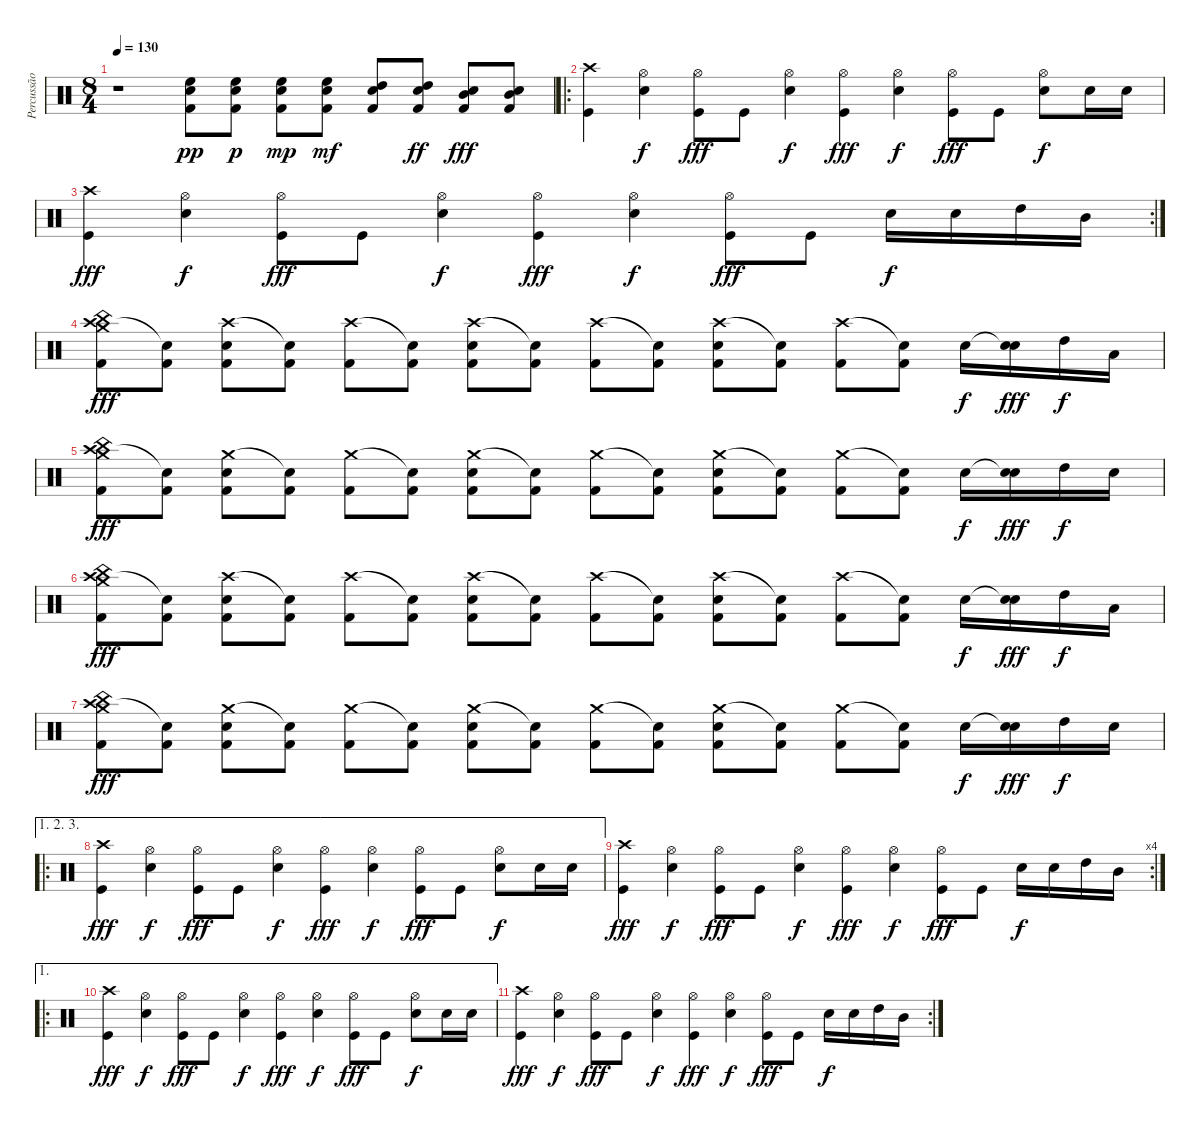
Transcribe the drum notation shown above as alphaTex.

\track ("Percussão" "Percussão") {instrument percussion}
\staff {score}
\articulation defaults
\ts (8 4)
\tempo 130
\clef neutral
\ks c
r.1{dy f} ("High Floor Tom (hit)" "Kick (hit) 2" "Electric Snare (hit)").8{dy pp} ("High Floor Tom (hit)" "Kick (hit) 2" "Electric Snare (hit)").8{dy p} ("High Floor Tom (hit)" "Kick (hit) 2" "Electric Snare (hit)").8{dy mp} ("High Floor Tom (hit)" "Kick (hit) 2" "Electric Snare (hit)").8{dy mf} ("High Tom (hit)" "Kick (hit) 2" "Electric Snare (hit)").8 ("High Tom (hit)" "Kick (hit) 2" "Electric Snare (hit)").8{dy ff} ("Mid Tom (hit)" "Kick (hit) 2" "Electric Snare (hit)").8{dy fff} ("Mid Tom (hit)" "Kick (hit) 2" "Electric Snare (hit)").8 |
\ro
("Crash high (hit)" "Kick (hit)").4 ("Hi-Hat (open)" "Electric Snare (hit)").4{dy f} ("Hi-Hat (open)" "Kick (hit)").8{dy fff} "Kick (hit)".8 ("Hi-Hat (open)" "Electric Snare (hit)").4{dy f} ("Hi-Hat (open)" "Kick (hit)").4{dy fff} ("Hi-Hat (open)" "Electric Snare (hit)").4{dy f} ("Hi-Hat (open)" "Kick (hit)").8{dy fff} "Kick (hit)".8 ("Hi-Hat (open)" "Electric Snare (hit)").8{dy f} "Electric Snare (hit)".16 "Electric Snare (hit)".16 |
\rc 2
("Crash high (hit)" "Kick (hit)").4{dy fff} ("Hi-Hat (open)" "Electric Snare (hit)").4{dy f} ("Hi-Hat (open)" "Kick (hit)").8{dy fff} "Kick (hit)".8 ("Hi-Hat (open)" "Electric Snare (hit)").4{dy f} ("Hi-Hat (open)" "Kick (hit)").4{dy fff} ("Hi-Hat (open)" "Electric Snare (hit)").4{dy f} ("Hi-Hat (open)" "Kick (hit)").8{dy fff} "Kick (hit)".8 "Electric Snare (hit)".16{dy f} "Electric Snare (hit)".16 "High Tom (hit)".16 "Mid Tom (hit)".16 |
("Crash high (hit)" "Crash medium (hit)" "China (hit)" "Kick (hit) 2").8{dy fff} ("Snare (hit)"{t} "Kick (hit) 2").8 ("Crash high (hit)" "Electric Snare (hit)" "Kick (hit) 2").8 ("Snare (hit)"{t} "Kick (hit) 2").8 ("Crash high (hit)" "Kick (hit) 2").8 ("Snare (hit)"{t} "Kick (hit) 2").8 ("Crash high (hit)" "Electric Snare (hit)" "Kick (hit) 2").8 ("Snare (hit)"{t} "Kick (hit) 2").8 ("Crash high (hit)" "Kick (hit) 2").8 ("Snare (hit)"{t} "Kick (hit) 2").8 ("Crash high (hit)" "Electric Snare (hit)" "Kick (hit) 2").8 ("Snare (hit)"{t} "Kick (hit) 2").8 ("Crash high (hit)" "Kick (hit) 2").8 ("Snare (hit)"{t} "Kick (hit) 2").8 "Electric Snare (hit)".16{dy f} ("Snare (hit)"{t} "Electric Snare (hit)").16{dy fff} "High Tom (hit)".16{dy f} "Low Tom (hit)".16 |
("Crash high (hit)" "Crash medium (hit)" "China (hit)" "Kick (hit) 2").8{dy fff} ("Snare (hit)"{t} "Kick (hit) 2").8 ("Crash medium (hit)" "Electric Snare (hit)" "Kick (hit) 2").8 ("Snare (hit)"{t} "Kick (hit) 2").8 ("Crash medium (hit)" "Kick (hit) 2").8 ("Snare (hit)"{t} "Kick (hit) 2").8 ("Crash medium (hit)" "Electric Snare (hit)" "Kick (hit) 2").8 ("Snare (hit)"{t} "Kick (hit) 2").8 ("Crash medium (hit)" "Kick (hit) 2").8 ("Snare (hit)"{t} "Kick (hit) 2").8 ("Crash medium (hit)" "Electric Snare (hit)" "Kick (hit) 2").8 ("Snare (hit)"{t} "Kick (hit) 2").8 ("Crash medium (hit)" "Kick (hit) 2").8 ("Snare (hit)"{t} "Kick (hit) 2").8 "Electric Snare (hit)".16{dy f} ("Snare (hit)"{t} "Electric Snare (hit)").16{dy fff} "High Tom (hit)".16{dy f} "Electric Snare (hit)".16 |
("Crash high (hit)" "Crash medium (hit)" "China (hit)" "Kick (hit) 2").8{dy fff} ("Snare (hit)"{t} "Kick (hit) 2").8 ("Crash high (hit)" "Electric Snare (hit)" "Kick (hit) 2").8 ("Snare (hit)"{t} "Kick (hit) 2").8 ("Crash high (hit)" "Kick (hit) 2").8 ("Snare (hit)"{t} "Kick (hit) 2").8 ("Crash high (hit)" "Electric Snare (hit)" "Kick (hit) 2").8 ("Snare (hit)"{t} "Kick (hit) 2").8 ("Crash high (hit)" "Kick (hit) 2").8 ("Snare (hit)"{t} "Kick (hit) 2").8 ("Crash high (hit)" "Electric Snare (hit)" "Kick (hit) 2").8 ("Snare (hit)"{t} "Kick (hit) 2").8 ("Crash high (hit)" "Kick (hit) 2").8 ("Snare (hit)"{t} "Kick (hit) 2").8 "Electric Snare (hit)".16{dy f} ("Snare (hit)"{t} "Electric Snare (hit)").16{dy fff} "High Tom (hit)".16{dy f} "Low Tom (hit)".16 |
("Crash high (hit)" "Crash medium (hit)" "China (hit)" "Kick (hit) 2").8{dy fff} ("Snare (hit)"{t} "Kick (hit) 2").8 ("Crash medium (hit)" "Electric Snare (hit)" "Kick (hit) 2").8 ("Snare (hit)"{t} "Kick (hit) 2").8 ("Crash medium (hit)" "Kick (hit) 2").8 ("Snare (hit)"{t} "Kick (hit) 2").8 ("Crash medium (hit)" "Electric Snare (hit)" "Kick (hit) 2").8 ("Snare (hit)"{t} "Kick (hit) 2").8 ("Crash medium (hit)" "Kick (hit) 2").8 ("Snare (hit)"{t} "Kick (hit) 2").8 ("Crash medium (hit)" "Electric Snare (hit)" "Kick (hit) 2").8 ("Snare (hit)"{t} "Kick (hit) 2").8 ("Crash medium (hit)" "Kick (hit) 2").8 ("Snare (hit)"{t} "Kick (hit) 2").8 "Electric Snare (hit)".16{dy f} ("Snare (hit)"{t} "Electric Snare (hit)").16{dy fff} "High Tom (hit)".16{dy f} "Electric Snare (hit)".16 |
\ae (1 2 3)
\ro
("Crash high (hit)" "Kick (hit)").4{dy fff} ("Hi-Hat (open)" "Electric Snare (hit)").4{dy f} ("Hi-Hat (open)" "Kick (hit)").8{dy fff} "Kick (hit)".8 ("Hi-Hat (open)" "Electric Snare (hit)").4{dy f} ("Hi-Hat (open)" "Kick (hit)").4{dy fff} ("Hi-Hat (open)" "Electric Snare (hit)").4{dy f} ("Hi-Hat (open)" "Kick (hit)").8{dy fff} "Kick (hit)".8 ("Hi-Hat (open)" "Electric Snare (hit)").8{dy f} "Electric Snare (hit)".16 "Electric Snare (hit)".16 |
\rc 4
("Crash high (hit)" "Kick (hit)").4{dy fff} ("Hi-Hat (open)" "Electric Snare (hit)").4{dy f} ("Hi-Hat (open)" "Kick (hit)").8{dy fff} "Kick (hit)".8 ("Hi-Hat (open)" "Electric Snare (hit)").4{dy f} ("Hi-Hat (open)" "Kick (hit)").4{dy fff} ("Hi-Hat (open)" "Electric Snare (hit)").4{dy f} ("Hi-Hat (open)" "Kick (hit)").8{dy fff} "Kick (hit)".8 "Electric Snare (hit)".16{dy f} "Electric Snare (hit)".16 "High Tom (hit)".16 "Mid Tom (hit)".16 |
\ae 1
\ro
("Crash high (hit)" "Kick (hit)").4{dy fff} ("Hi-Hat (open)" "Electric Snare (hit)").4{dy f} ("Hi-Hat (open)" "Kick (hit)").8{dy fff} "Kick (hit)".8 ("Hi-Hat (open)" "Electric Snare (hit)").4{dy f} ("Hi-Hat (open)" "Kick (hit)").4{dy fff} ("Hi-Hat (open)" "Electric Snare (hit)").4{dy f} ("Hi-Hat (open)" "Kick (hit)").8{dy fff} "Kick (hit)".8 ("Hi-Hat (open)" "Electric Snare (hit)").8{dy f} "Electric Snare (hit)".16 "Electric Snare (hit)".16 |
\rc 2
("Crash high (hit)" "Kick (hit)").4{dy fff} ("Hi-Hat (open)" "Electric Snare (hit)").4{dy f} ("Hi-Hat (open)" "Kick (hit)").8{dy fff} "Kick (hit)".8 ("Hi-Hat (open)" "Electric Snare (hit)").4{dy f} ("Hi-Hat (open)" "Kick (hit)").4{dy fff} ("Hi-Hat (open)" "Electric Snare (hit)").4{dy f} ("Hi-Hat (open)" "Kick (hit)").8{dy fff} "Kick (hit)".8 "Electric Snare (hit)".16{dy f} "Electric Snare (hit)".16 "High Tom (hit)".16 "Mid Tom (hit)".16
